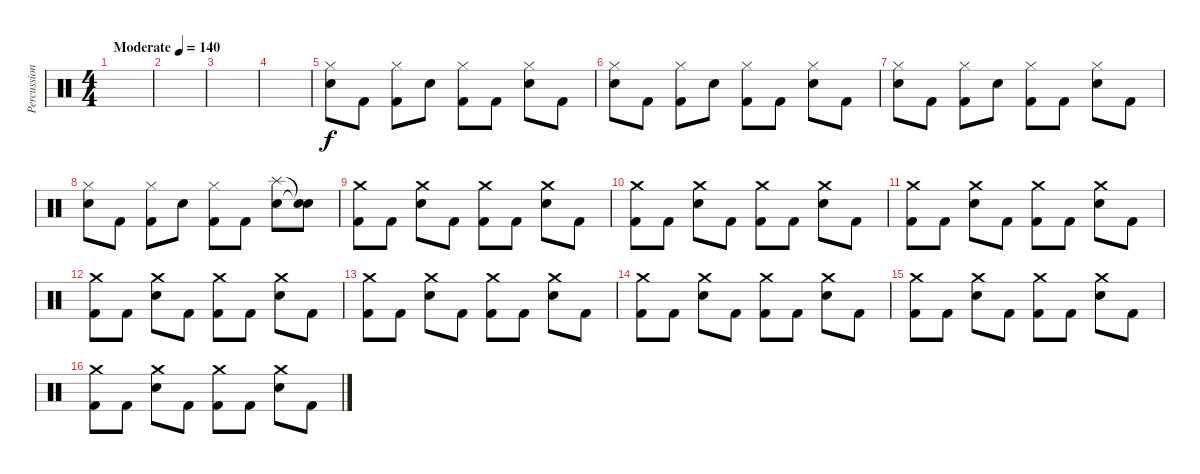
\track ("Percussion" "Percussion") {instrument percussion}
\staff {score}
\articulation defaults
\ts (4 4)
\tempo (140 "Moderate")
\clef neutral
\ks c
|
|
|
|
("Hi-Hat (closed)" "Electric Snare (hit)").8 "Kick (hit) 2".8 ("Hi-Hat (closed)" "Kick (hit) 2").8 "Electric Snare (hit)".8 ("Hi-Hat (closed)" "Kick (hit) 2").8 "Kick (hit) 2".8 ("Hi-Hat (closed)" "Electric Snare (hit)").8 "Kick (hit) 2".8 |
("Hi-Hat (closed)" "Electric Snare (hit)").8 "Kick (hit) 2".8 ("Hi-Hat (closed)" "Kick (hit) 2").8 "Electric Snare (hit)".8 ("Hi-Hat (closed)" "Kick (hit) 2").8 "Kick (hit) 2".8 ("Hi-Hat (closed)" "Electric Snare (hit)").8 "Kick (hit) 2".8 |
("Hi-Hat (closed)" "Electric Snare (hit)").8 "Kick (hit) 2".8 ("Hi-Hat (closed)" "Kick (hit) 2").8 "Electric Snare (hit)".8 ("Hi-Hat (closed)" "Kick (hit) 2").8 "Kick (hit) 2".8 ("Hi-Hat (closed)" "Electric Snare (hit)").8 "Kick (hit) 2".8 |
("Hi-Hat (closed)" "Electric Snare (hit)").8 "Kick (hit) 2".8 ("Hi-Hat (closed)" "Kick (hit) 2").8 "Electric Snare (hit)".8 ("Hi-Hat (closed)" "Kick (hit) 2").8 "Kick (hit) 2".8 ("Splash (hit)" "Electric Snare (hit)").8 ("Snare (hit)"{t} "Snare (hit)"{t}).8 |
("Crash medium (hit)" "Kick (hit) 2").8 "Kick (hit) 2".8 ("Crash medium (hit)" "Electric Snare (hit)").8 "Kick (hit) 2".8 ("Crash medium (hit)" "Kick (hit) 2").8 "Kick (hit) 2".8 ("Crash medium (hit)" "Electric Snare (hit)").8 "Kick (hit) 2".8 |
("Crash medium (hit)" "Kick (hit) 2").8 "Kick (hit) 2".8 ("Crash medium (hit)" "Electric Snare (hit)").8 "Kick (hit) 2".8 ("Crash medium (hit)" "Kick (hit) 2").8 "Kick (hit) 2".8 ("Crash medium (hit)" "Electric Snare (hit)").8 "Kick (hit) 2".8 |
("Crash medium (hit)" "Kick (hit) 2").8 "Kick (hit) 2".8 ("Crash medium (hit)" "Electric Snare (hit)").8 "Kick (hit) 2".8 ("Crash medium (hit)" "Kick (hit) 2").8 "Kick (hit) 2".8 ("Crash medium (hit)" "Electric Snare (hit)").8 "Kick (hit) 2".8 |
("Crash medium (hit)" "Kick (hit) 2").8 "Kick (hit) 2".8 ("Crash medium (hit)" "Electric Snare (hit)").8 "Kick (hit) 2".8 ("Crash medium (hit)" "Kick (hit) 2").8 "Kick (hit) 2".8 ("Crash medium (hit)" "Electric Snare (hit)").8 "Kick (hit) 2".8 |
("Crash medium (hit)" "Kick (hit) 2").8 "Kick (hit) 2".8 ("Crash medium (hit)" "Electric Snare (hit)").8 "Kick (hit) 2".8 ("Crash medium (hit)" "Kick (hit) 2").8 "Kick (hit) 2".8 ("Crash medium (hit)" "Electric Snare (hit)").8 "Kick (hit) 2".8 |
("Crash medium (hit)" "Kick (hit) 2").8 "Kick (hit) 2".8 ("Crash medium (hit)" "Electric Snare (hit)").8 "Kick (hit) 2".8 ("Crash medium (hit)" "Kick (hit) 2").8 "Kick (hit) 2".8 ("Crash medium (hit)" "Electric Snare (hit)").8 "Kick (hit) 2".8 |
("Crash medium (hit)" "Kick (hit) 2").8 "Kick (hit) 2".8 ("Crash medium (hit)" "Electric Snare (hit)").8 "Kick (hit) 2".8 ("Crash medium (hit)" "Kick (hit) 2").8 "Kick (hit) 2".8 ("Crash medium (hit)" "Electric Snare (hit)").8 "Kick (hit) 2".8 |
("Crash medium (hit)" "Kick (hit) 2").8 "Kick (hit) 2".8 ("Crash medium (hit)" "Electric Snare (hit)").8 "Kick (hit) 2".8 ("Crash medium (hit)" "Kick (hit) 2").8 "Kick (hit) 2".8 ("Crash medium (hit)" "Electric Snare (hit)").8 "Kick (hit) 2".8
